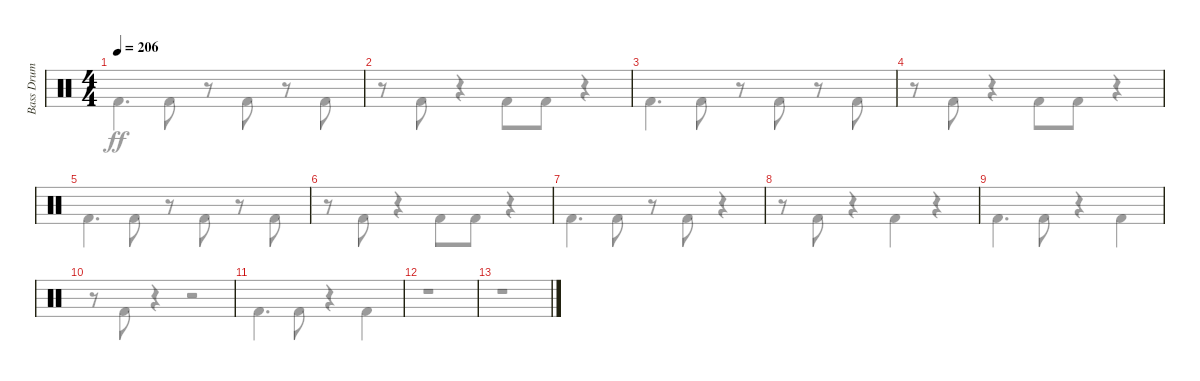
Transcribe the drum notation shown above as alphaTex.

\track ("Bass Drum" "Bass Drum") {instrument percussion}
\staff {score}
\articulation defaults
\voice
\ts (4 4)
\tempo 206
\clef neutral
\ks c
|
|
|
|
|
|
|
|
|
|
|
|
\voice
\clef neutral
\ks c "Kick (hit) 2".4{d dy ff} "Kick (hit) 2".8
r.8 "Kick (hit) 2".8 r.8 "Kick (hit) 2".8 |
r.8 "Kick (hit) 2".8 r.4 "Kick (hit) 2".8 "Kick (hit) 2".8 r.4 |
"Kick (hit) 2".4{d} "Kick (hit) 2".8 r.8 "Kick (hit) 2".8 r.8 "Kick (hit) 2".8 |
r.8 "Kick (hit) 2".8 r.4 "Kick (hit) 2".8 "Kick (hit) 2".8 r.4 |
"Kick (hit) 2".4{d} "Kick (hit) 2".8 r.8 "Kick (hit) 2".8 r.8 "Kick (hit) 2".8 |
r.8 "Kick (hit) 2".8 r.4 "Kick (hit) 2".8 "Kick (hit) 2".8 r.4 |
"Kick (hit) 2".4{d} "Kick (hit) 2".8 r.8 "Kick (hit) 2".8 r.4 |
r.8 "Kick (hit) 2".8 r.4 "Kick (hit) 2".4 r.4 |
"Kick (hit) 2".4{d} "Kick (hit) 2".8 r.4 "Kick (hit) 2".4 |
r.8 "Kick (hit) 2".8 r.4 r.2 |
"Kick (hit) 2".4{d} "Kick (hit) 2".8 r.4 "Kick (hit) 2".4 |
r.1 |
r.1
